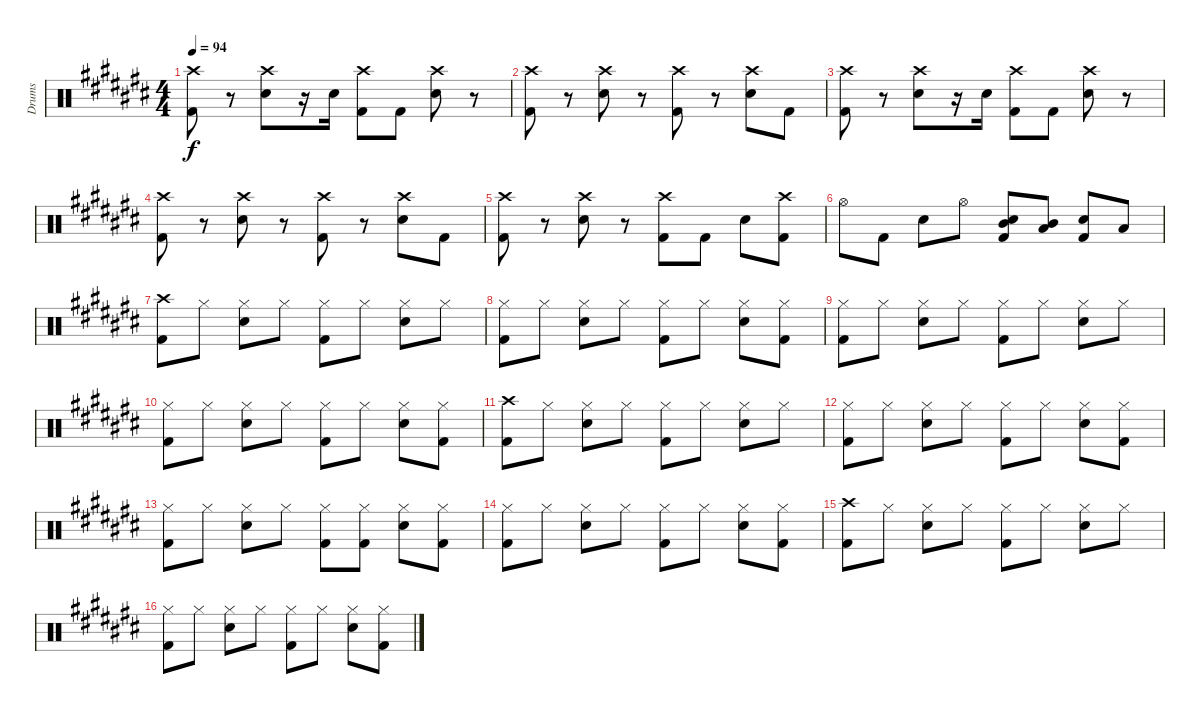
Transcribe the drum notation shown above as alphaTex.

\track ("Drums" "Drums") {instrument percussion}
\staff {score}
\articulation defaults
\ts (4 4)
\tempo 94
\clef neutral
\ks c#
("Crash high (hit)" "Kick (hit) 2").8{dy f} r.8 ("Crash high (hit)" "Snare (hit) 2").8 r.16 "Snare (hit) 2".16 ("Crash high (hit)" "Kick (hit) 2").8 "Kick (hit) 2".8 ("Crash high (hit)" "Snare (hit) 2").8 r.8 |
("Crash high (hit)" "Kick (hit) 2").8 r.8 ("Crash high (hit)" "Snare (hit) 2").8 r.8 ("Crash high (hit)" "Kick (hit) 2").8 r.8 ("Crash high (hit)" "Snare (hit) 2").8 "Kick (hit) 2".8 |
("Crash high (hit)" "Kick (hit) 2").8 r.8 ("Crash high (hit)" "Snare (hit) 2").8 r.16 "Snare (hit) 2".16 ("Crash high (hit)" "Kick (hit) 2").8 "Kick (hit) 2".8 ("Crash high (hit)" "Snare (hit) 2").8 r.8 |
("Crash high (hit)" "Kick (hit) 2").8 r.8 ("Crash high (hit)" "Snare (hit) 2").8 r.8 ("Crash high (hit)" "Kick (hit) 2").8 r.8 ("Crash high (hit)" "Snare (hit) 2").8 "Kick (hit) 2".8 |
("Crash high (hit)" "Kick (hit) 2").8 r.8 ("Crash high (hit)" "Snare (hit) 2").8 r.8 ("Crash high (hit)" "Kick (hit) 2").8 "Kick (hit) 2".8 "Snare (hit) 2".8 ("Crash high (hit)" "Kick (hit) 2").8 |
"Hi-Hat (open)".8 "Kick (hit) 2".8 "Snare (hit) 2".8 "Hi-Hat (open)".8 ("Mid Tom (hit)" "Snare (hit) 2" "Kick (hit) 2").8 ("Mid Tom (hit)" "Low Floor Tom (hit)").8 ("Snare (hit) 2" "Kick (hit) 2").8 "Low Floor Tom (hit)".8 |
("Crash high (hit)" "Kick (hit) 2").8 "Hi-Hat (closed)".8 ("Hi-Hat (closed)" "Snare (hit) 2").8 "Hi-Hat (closed)".8 ("Hi-Hat (closed)" "Kick (hit) 2").8 "Hi-Hat (closed)".8 ("Hi-Hat (closed)" "Snare (hit) 2").8 "Hi-Hat (closed)".8 |
("Hi-Hat (closed)" "Kick (hit) 2").8 "Hi-Hat (closed)".8 ("Hi-Hat (closed)" "Snare (hit) 2").8 "Hi-Hat (closed)".8 ("Hi-Hat (closed)" "Kick (hit) 2").8 "Hi-Hat (closed)".8 ("Hi-Hat (closed)" "Snare (hit) 2").8 ("Hi-Hat (closed)" "Kick (hit) 2").8 |
("Hi-Hat (closed)" "Kick (hit) 2").8 "Hi-Hat (closed)".8 ("Hi-Hat (closed)" "Snare (hit) 2").8 "Hi-Hat (closed)".8 ("Hi-Hat (closed)" "Kick (hit) 2").8 "Hi-Hat (closed)".8 ("Hi-Hat (closed)" "Snare (hit) 2").8 "Hi-Hat (closed)".8 |
("Hi-Hat (closed)" "Kick (hit) 2").8 "Hi-Hat (closed)".8 ("Hi-Hat (closed)" "Snare (hit) 2").8 "Hi-Hat (closed)".8 ("Hi-Hat (closed)" "Kick (hit) 2").8 "Hi-Hat (closed)".8 ("Hi-Hat (closed)" "Snare (hit) 2").8 ("Hi-Hat (closed)" "Kick (hit) 2").8 |
("Crash high (hit)" "Kick (hit) 2").8 "Hi-Hat (closed)".8 ("Hi-Hat (closed)" "Snare (hit) 2").8 "Hi-Hat (closed)".8 ("Hi-Hat (closed)" "Kick (hit) 2").8 "Hi-Hat (closed)".8 ("Hi-Hat (closed)" "Snare (hit) 2").8 "Hi-Hat (closed)".8 |
("Hi-Hat (closed)" "Kick (hit) 2").8 "Hi-Hat (closed)".8 ("Hi-Hat (closed)" "Snare (hit) 2").8 "Hi-Hat (closed)".8 ("Hi-Hat (closed)" "Kick (hit) 2").8 "Hi-Hat (closed)".8 ("Hi-Hat (closed)" "Snare (hit) 2").8 ("Hi-Hat (closed)" "Kick (hit) 2").8 |
("Hi-Hat (closed)" "Kick (hit) 2").8 "Hi-Hat (closed)".8 ("Hi-Hat (closed)" "Snare (hit) 2").8 "Hi-Hat (closed)".8 ("Hi-Hat (closed)" "Kick (hit) 2").8 ("Hi-Hat (closed)" "Kick (hit) 2").8 ("Hi-Hat (closed)" "Snare (hit) 2").8 ("Hi-Hat (closed)" "Kick (hit) 2").8 |
("Hi-Hat (closed)" "Kick (hit) 2").8 "Hi-Hat (closed)".8 ("Hi-Hat (closed)" "Snare (hit) 2").8 "Hi-Hat (closed)".8 ("Hi-Hat (closed)" "Kick (hit) 2").8 "Hi-Hat (closed)".8 ("Hi-Hat (closed)" "Snare (hit) 2").8 ("Hi-Hat (closed)" "Kick (hit) 2").8 |
("Crash high (hit)" "Kick (hit) 2").8 "Hi-Hat (closed)".8 ("Hi-Hat (closed)" "Snare (hit) 2").8 "Hi-Hat (closed)".8 ("Hi-Hat (closed)" "Kick (hit) 2").8 "Hi-Hat (closed)".8 ("Hi-Hat (closed)" "Snare (hit) 2").8 "Hi-Hat (closed)".8 |
("Hi-Hat (closed)" "Kick (hit) 2").8 "Hi-Hat (closed)".8 ("Hi-Hat (closed)" "Snare (hit) 2").8 "Hi-Hat (closed)".8 ("Hi-Hat (closed)" "Kick (hit) 2").8 "Hi-Hat (closed)".8 ("Hi-Hat (closed)" "Snare (hit) 2").8 ("Hi-Hat (closed)" "Kick (hit) 2").8
